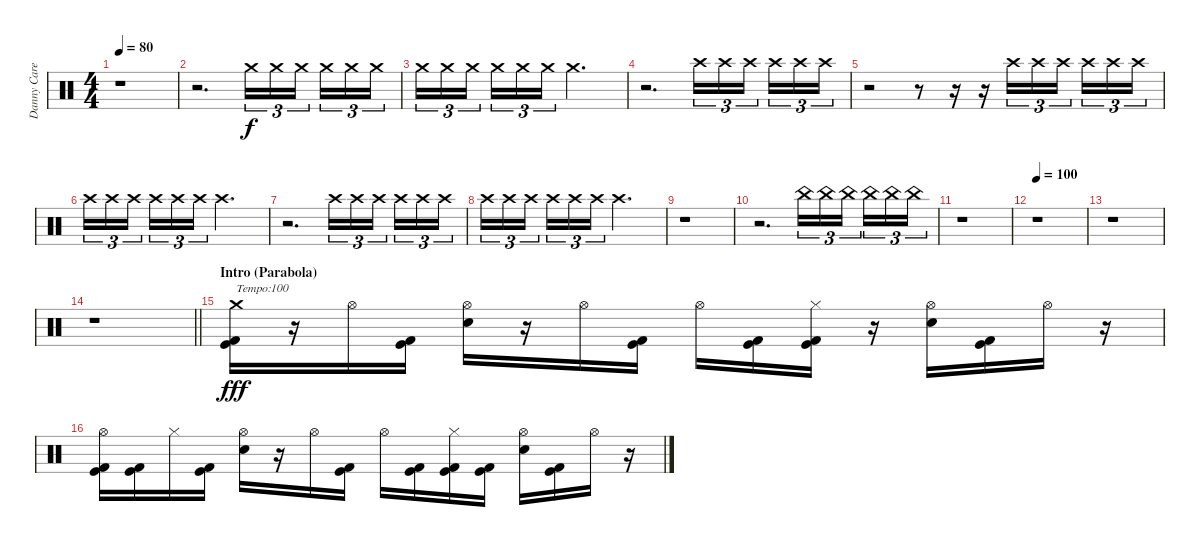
\track ("Danny Carey - Percussion" "Danny Care") {instrument percussion}
\staff {score}
\articulation defaults
\ts (4 4)
\tempo 80
\clef neutral
\ks c
r.1{dy f} |
r.2{d volume 0} "Crash medium (hit)".16{tu (3 2) volume 10} "Crash medium (hit)".16{tu (3 2)} "Crash medium (hit)".16{tu (3 2) beam splitsecondary} "Crash medium (hit)".16{tu (3 2)} "Crash medium (hit)".16{tu (3 2)} "Crash medium (hit)".16{tu (3 2)} |
"Crash medium (hit)".16{tu (3 2)} "Crash medium (hit)".16{tu (3 2)} "Crash medium (hit)".16{tu (3 2) beam splitsecondary} "Crash medium (hit)".16{tu (3 2)} "Crash medium (hit)".16{tu (3 2)} "Crash medium (hit)".16{tu (3 2)} "Crash medium (hit)".2{d} |
r.2{d volume 0} "Crash high (hit)".16{tu (3 2) volume 10} "Crash high (hit)".16{tu (3 2)} "Crash high (hit)".16{tu (3 2) beam splitsecondary} "Crash high (hit)".16{tu (3 2)} "Crash high (hit)".16{tu (3 2)} "Crash high (hit)".16{tu (3 2)} |
r.2 r.8 r.16 r.16{volume 0} "Crash high (hit)".16{tu (3 2) volume 10} "Crash high (hit)".16{tu (3 2)} "Crash high (hit)".16{tu (3 2) beam splitsecondary} "Crash high (hit)".16{tu (3 2)} "Crash high (hit)".16{tu (3 2)} "Crash high (hit)".16{tu (3 2)} |
"Crash high (hit)".16{tu (3 2)} "Crash high (hit)".16{tu (3 2)} "Crash high (hit)".16{tu (3 2) beam splitsecondary} "Crash high (hit)".16{tu (3 2)} "Crash high (hit)".16{tu (3 2)} "Crash high (hit)".16{tu (3 2)} "Crash high (hit)".2{d} |
r.2{d volume 0} "Crash high (hit)".16{tu (3 2) volume 10} "Crash high (hit)".16{tu (3 2)} "Crash high (hit)".16{tu (3 2) beam splitsecondary} "Crash high (hit)".16{tu (3 2)} "Crash high (hit)".16{tu (3 2)} "Crash high (hit)".16{tu (3 2)} |
"Crash high (hit)".16{tu (3 2)} "Crash high (hit)".16{tu (3 2)} "Crash high (hit)".16{tu (3 2) beam splitsecondary} "Crash high (hit)".16{tu (3 2)} "Crash high (hit)".16{tu (3 2)} "Crash high (hit)".16{tu (3 2)} "Crash high (hit)".2{d} |
r.1 |
r.2{d} "China (hit)".16{tu (3 2) volume 10} "China (hit)".16{tu (3 2)} "China (hit)".16{tu (3 2) beam splitsecondary} "China (hit)".16{tu (3 2)} "China (hit)".16{tu (3 2)} "China (hit)".16{tu (3 2)} |
r.1 |
\tempo 100
r.1 |
r.1 |
\barLineRight lightlight
r.1 |
\section ("" "Intro (Parabola)")
("Crash medium (hit)" "Kick (hit)" "Kick (hit) 2").16{txt "Tempo:100" dy fff} r.16 "Hi-Hat (open)".16 ("Kick (hit)" "Kick (hit) 2").16 ("Hi-Hat (open)" "Electric Snare (hit)").16 r.16 "Hi-Hat (open)".16 ("Kick (hit)" "Kick (hit) 2").16 "Hi-Hat (open)".16 ("Kick (hit)" "Kick (hit) 2").16 ("Hi-Hat (closed)" "Kick (hit)" "Kick (hit) 2").16 r.16 ("Hi-Hat (open)" "Electric Snare (hit)").16 ("Kick (hit)" "Kick (hit) 2").16 "Hi-Hat (open)".16 r.16 |
("Hi-Hat (open)" "Kick (hit)" "Kick (hit) 2").16 ("Kick (hit)" "Kick (hit) 2").16 "Hi-Hat (closed)".16 ("Kick (hit)" "Kick (hit) 2").16 ("Hi-Hat (open)" "Electric Snare (hit)").16 r.16 "Hi-Hat (open)".16 ("Kick (hit)" "Kick (hit) 2").16 "Hi-Hat (open)".16 ("Kick (hit)" "Kick (hit) 2").16 ("Hi-Hat (closed)" "Kick (hit)" "Kick (hit) 2").16 ("Kick (hit)" "Kick (hit) 2").16 ("Hi-Hat (open)" "Electric Snare (hit)").16 ("Kick (hit)" "Kick (hit) 2").16 "Hi-Hat (open)".16 r.16
